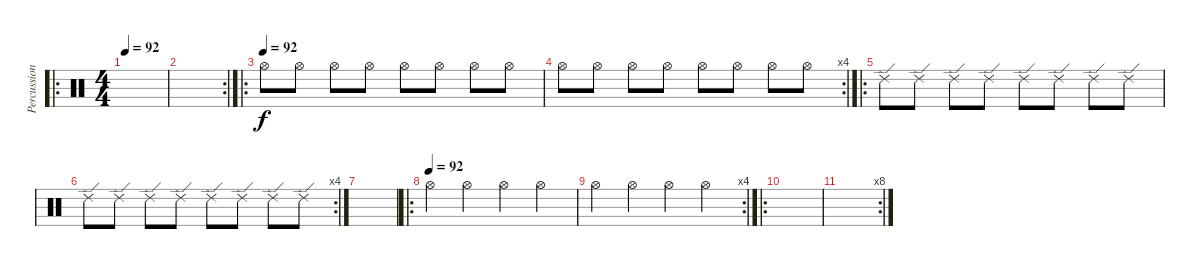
\track ("Percussion" "Percussion") {instrument percussion}
\staff {score}
\articulation defaults
\ro
\ts (4 4)
\tempo 92
\clef neutral
\ks c
|
\rc 2
|
\ro
\tempo (92)
"Hi-Hat (open)".8 "Hi-Hat (open)".8 "Hi-Hat (open)".8 "Hi-Hat (open)".8 "Hi-Hat (open)".8 "Hi-Hat (open)".8 "Hi-Hat (open)".8 "Hi-Hat (open)".8 |
\rc 4 "Hi-Hat (open)".8 "Hi-Hat (open)".8 "Hi-Hat (open)".8 "Hi-Hat (open)".8 "Hi-Hat (open)".8 "Hi-Hat (open)".8 "Hi-Hat (open)".8 "Hi-Hat (open)".8
|
\ro "Ride (edge) 2".8 "Ride (edge) 2".8 "Ride (edge) 2".8 "Ride (edge) 2".8 "Ride (edge) 2".8 "Ride (edge) 2".8 "Ride (edge) 2".8 "Ride (edge) 2".8
|
\rc 4 "Ride (edge) 2".8 "Ride (edge) 2".8 "Ride (edge) 2".8 "Ride (edge) 2".8 "Ride (edge) 2".8 "Ride (edge) 2".8 "Ride (edge) 2".8 "Ride (edge) 2".8
|
|
\ro
\tempo (92)
"Hi-Hat (open)".4 "Hi-Hat (open)".4 "Hi-Hat (open)".4 "Hi-Hat (open)".4 |
\rc 4 "Hi-Hat (open)".4 "Hi-Hat (open)".4 "Hi-Hat (open)".4 "Hi-Hat (open)".4
|
\ro
|
\rc 8
